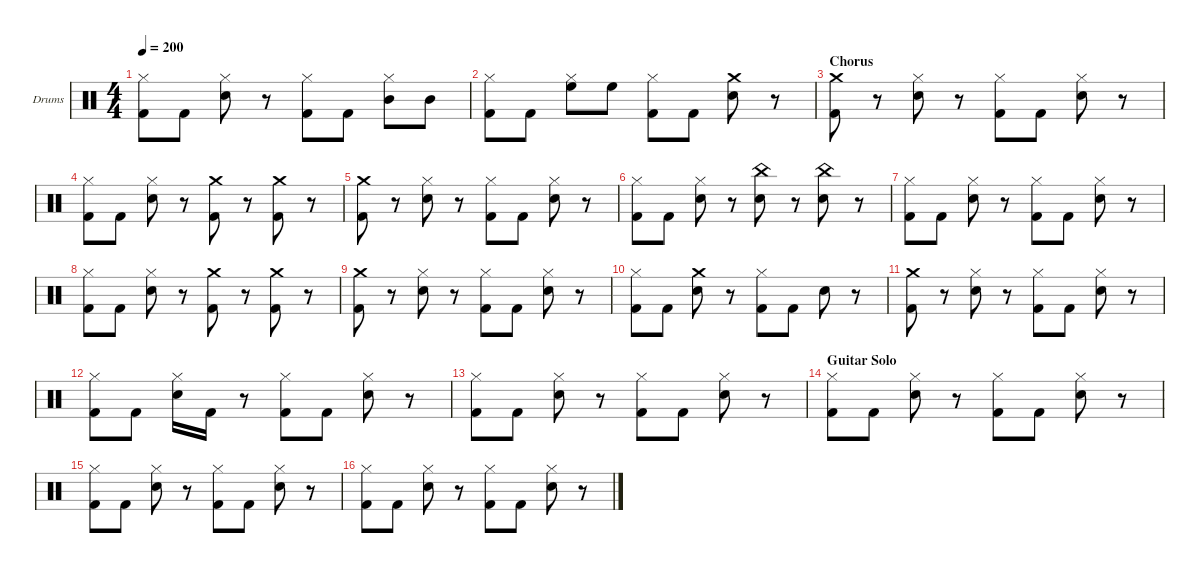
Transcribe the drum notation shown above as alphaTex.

\hideDynamics
\bracketExtendMode nobrackets
\firstSystemTrackNameOrientation horizontal
\otherSystemsTrackNameOrientation horizontal
\track ("Drumkit" "Drums") {instrument percussion}
\staff {score}
\articulation defaults
\ts (4 4)
\tempo 200
\clef neutral
\ks c
("Hi-Hat (closed)" "Kick (hit) 2").8{dy f} "Kick (hit) 2".8 ("Snare (hit) 2" "Hi-Hat (closed)").8 r.8 ("Hi-Hat (closed)" "Kick (hit) 2").8 "Kick (hit) 2".8 ("Mid Tom (hit)" "Hi-Hat (closed)").8 "Mid Tom (hit)".8 |
("Hi-Hat (closed)" "Kick (hit) 2").8 "Kick (hit) 2".8 ("High Floor Tom (hit)" "Hi-Hat (closed)").8 "High Floor Tom (hit)".8 ("Kick (hit) 2" "Hi-Hat (closed)").8 "Kick (hit) 2".8 ("Crash medium (hit)" "Snare (hit) 2").8 r.8 |
\section ("" "Chorus")
("Kick (hit) 2" "Crash medium (hit)").8 r.8 ("Hi-Hat (closed)" "Snare (hit) 2").8 r.8 ("Hi-Hat (closed)" "Kick (hit) 2").8 "Kick (hit) 2".8 ("Hi-Hat (closed)" "Snare (hit) 2").8 r.8 |
("Hi-Hat (closed)" "Kick (hit) 2").8 "Kick (hit) 2".8 ("Snare (hit) 2" "Hi-Hat (closed)").8 r.8 ("Crash medium (hit)" "Kick (hit) 2").8 r.8 ("Crash medium (hit)" "Kick (hit) 2").8 r.8 |
("Kick (hit) 2" "Crash medium (hit)").8 r.8 ("Hi-Hat (closed)" "Snare (hit) 2").8 r.8 ("Kick (hit) 2" "Hi-Hat (closed)").8 "Kick (hit) 2".8 ("Snare (hit) 2" "Hi-Hat (closed)").8 r.8 |
("Kick (hit) 2" "Hi-Hat (closed)").8 "Kick (hit) 2".8 ("Snare (hit) 2" "Hi-Hat (closed)").8 r.8 ("China (hit)" "Snare (hit) 2").8 r.8 ("China (hit)" "Snare (hit) 2").8 r.8 |
("Hi-Hat (closed)" "Kick (hit) 2").8 "Kick (hit) 2".8 ("Hi-Hat (closed)" "Snare (hit) 2").8 r.8 ("Hi-Hat (closed)" "Kick (hit) 2").8 "Kick (hit) 2".8 ("Hi-Hat (closed)" "Snare (hit) 2").8 r.8 |
("Hi-Hat (closed)" "Kick (hit) 2").8 "Kick (hit) 2".8 ("Snare (hit) 2" "Hi-Hat (closed)").8 r.8 ("Crash medium (hit)" "Kick (hit) 2").8 r.8 ("Crash medium (hit)" "Kick (hit) 2").8 r.8 |
("Kick (hit) 2" "Crash medium (hit)").8 r.8 ("Hi-Hat (closed)" "Snare (hit) 2").8 r.8 ("Kick (hit) 2" "Hi-Hat (closed)").8 "Kick (hit) 2".8 ("Snare (hit) 2" "Hi-Hat (closed)").8 r.8 |
("Hi-Hat (closed)" "Kick (hit) 2").8 "Kick (hit) 2".8 ("Crash medium (hit)" "Snare (hit) 2").8 r.8 ("Hi-Hat (closed)" "Kick (hit) 2").8 "Kick (hit) 2".8 "Snare (hit) 2".8 r.8 |
("Kick (hit) 2" "Crash medium (hit)").8 r.8 ("Hi-Hat (closed)" "Snare (hit) 2").8 r.8 ("Kick (hit) 2" "Hi-Hat (closed)").8 "Kick (hit) 2".8 ("Snare (hit) 2" "Hi-Hat (closed)").8 r.8 |
("Kick (hit) 2" "Hi-Hat (closed)").8 "Kick (hit) 2".8 ("Snare (hit) 2" "Hi-Hat (closed)").16 "Kick (hit) 2".16 r.8 ("Kick (hit) 2" "Hi-Hat (closed)").8 "Kick (hit) 2".8 ("Snare (hit) 2" "Hi-Hat (closed)").8 r.8 |
("Kick (hit) 2" "Hi-Hat (closed)").8 "Kick (hit) 2".8 ("Snare (hit) 2" "Hi-Hat (closed)").8 r.8 ("Kick (hit) 2" "Hi-Hat (closed)").8 "Kick (hit) 2".8 ("Snare (hit) 2" "Hi-Hat (closed)").8 r.8 |
\section ("" "Guitar Solo")
("Kick (hit) 2" "Hi-Hat (closed)").8 "Kick (hit) 2".8 ("Snare (hit) 2" "Hi-Hat (closed)").8 r.8 ("Kick (hit) 2" "Hi-Hat (closed)").8 "Kick (hit) 2".8 ("Snare (hit) 2" "Hi-Hat (closed)").8 r.8 |
("Kick (hit) 2" "Hi-Hat (closed)").8 "Kick (hit) 2".8 ("Snare (hit) 2" "Hi-Hat (closed)").8 r.8 ("Kick (hit) 2" "Hi-Hat (closed)").8 "Kick (hit) 2".8 ("Snare (hit) 2" "Hi-Hat (closed)").8 r.8 |
("Kick (hit) 2" "Hi-Hat (closed)").8 "Kick (hit) 2".8 ("Snare (hit) 2" "Hi-Hat (closed)").8 r.8 ("Kick (hit) 2" "Hi-Hat (closed)").8 "Kick (hit) 2".8 ("Snare (hit) 2" "Hi-Hat (closed)").8 r.8
